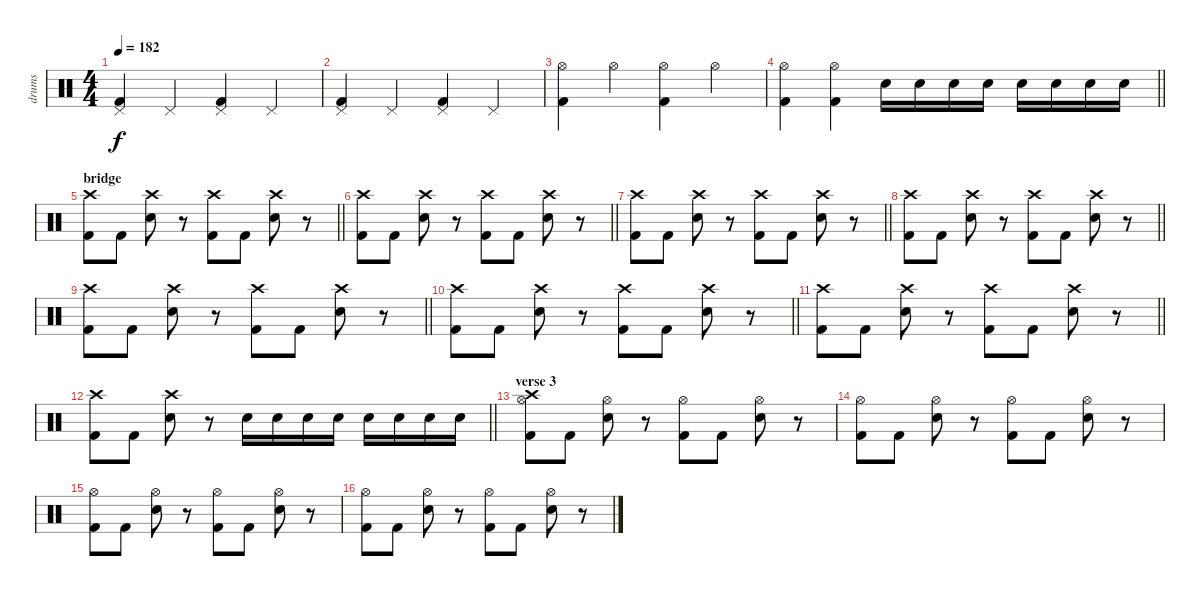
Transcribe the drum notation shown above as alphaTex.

\track ("drums" "drums") {instrument percussion}
\staff {score}
\articulation defaults
\ts (4 4)
\tempo 182
\clef neutral
\ks c
("Kick (hit) 2" "Pedal Hi-Hat (hit)").4{dy f} "Pedal Hi-Hat (hit)".4 ("Kick (hit) 2" "Pedal Hi-Hat (hit)").4 "Pedal Hi-Hat (hit)".4 |
("Kick (hit) 2" "Pedal Hi-Hat (hit)").4 "Pedal Hi-Hat (hit)".4 ("Kick (hit) 2" "Pedal Hi-Hat (hit)").4 "Pedal Hi-Hat (hit)".4 |
("Kick (hit) 2" "Hi-Hat (open)").4 "Hi-Hat (open)".4 ("Kick (hit) 2" "Hi-Hat (open)").4 "Hi-Hat (open)".4 |
\barLineRight lightlight
("Kick (hit) 2" "Hi-Hat (open)").4 ("Kick (hit) 2" "Hi-Hat (open)").4 "Electric Snare (hit)".16 "Electric Snare (hit)".16 "Electric Snare (hit)".16 "Electric Snare (hit)".16 "Electric Snare (hit)".16 "Electric Snare (hit)".16 "Electric Snare (hit)".16 "Electric Snare (hit)".16 |
\section ("" "bridge")
\barLineRight lightlight
("Kick (hit) 2" "Crash high (hit)").8 "Kick (hit) 2".8 ("Electric Snare (hit)" "Crash high (hit)").8 r.8 ("Kick (hit) 2" "Crash high (hit)").8 "Kick (hit) 2".8 ("Electric Snare (hit)" "Crash high (hit)").8 r.8 |
\barLineRight lightlight
("Kick (hit) 2" "Crash high (hit)").8 "Kick (hit) 2".8 ("Electric Snare (hit)" "Crash high (hit)").8 r.8 ("Kick (hit) 2" "Crash high (hit)").8 "Kick (hit) 2".8 ("Electric Snare (hit)" "Crash high (hit)").8 r.8 |
\barLineRight lightlight
("Kick (hit) 2" "Crash high (hit)").8 "Kick (hit) 2".8 ("Electric Snare (hit)" "Crash high (hit)").8 r.8 ("Kick (hit) 2" "Crash high (hit)").8 "Kick (hit) 2".8 ("Electric Snare (hit)" "Crash high (hit)").8 r.8 |
\barLineRight lightlight
("Kick (hit) 2" "Crash high (hit)").8 "Kick (hit) 2".8 ("Electric Snare (hit)" "Crash high (hit)").8 r.8 ("Kick (hit) 2" "Crash high (hit)").8 "Kick (hit) 2".8 ("Electric Snare (hit)" "Crash high (hit)").8 r.8 |
\barLineRight lightlight
("Kick (hit) 2" "Crash high (hit)").8 "Kick (hit) 2".8 ("Electric Snare (hit)" "Crash high (hit)").8 r.8 ("Kick (hit) 2" "Crash high (hit)").8 "Kick (hit) 2".8 ("Electric Snare (hit)" "Crash high (hit)").8 r.8 |
\barLineRight lightlight
("Kick (hit) 2" "Crash high (hit)").8 "Kick (hit) 2".8 ("Electric Snare (hit)" "Crash high (hit)").8 r.8 ("Kick (hit) 2" "Crash high (hit)").8 "Kick (hit) 2".8 ("Electric Snare (hit)" "Crash high (hit)").8 r.8 |
\barLineRight lightlight
("Kick (hit) 2" "Crash high (hit)").8 "Kick (hit) 2".8 ("Electric Snare (hit)" "Crash high (hit)").8 r.8 ("Kick (hit) 2" "Crash high (hit)").8 "Kick (hit) 2".8 ("Electric Snare (hit)" "Crash high (hit)").8 r.8 |
\barLineRight lightlight
("Kick (hit) 2" "Crash high (hit)").8 "Kick (hit) 2".8 ("Electric Snare (hit)" "Crash high (hit)").8 r.8 "Electric Snare (hit)".16 "Electric Snare (hit)".16 "Electric Snare (hit)".16 "Electric Snare (hit)".16 "Electric Snare (hit)".16 "Electric Snare (hit)".16 "Electric Snare (hit)".16 "Electric Snare (hit)".16 |
\section ("" "verse 3")
("Kick (hit) 2" "Hi-Hat (open)" "Crash high (hit)").8 "Kick (hit) 2".8 ("Electric Snare (hit)" "Hi-Hat (open)").8 r.8 ("Kick (hit) 2" "Hi-Hat (open)").8 "Kick (hit) 2".8 ("Electric Snare (hit)" "Hi-Hat (open)").8 r.8 |
("Kick (hit) 2" "Hi-Hat (open)").8 "Kick (hit) 2".8 ("Electric Snare (hit)" "Hi-Hat (open)").8 r.8 ("Kick (hit) 2" "Hi-Hat (open)").8 "Kick (hit) 2".8 ("Electric Snare (hit)" "Hi-Hat (open)").8 r.8 |
("Kick (hit) 2" "Hi-Hat (open)").8 "Kick (hit) 2".8 ("Electric Snare (hit)" "Hi-Hat (open)").8 r.8 ("Kick (hit) 2" "Hi-Hat (open)").8 "Kick (hit) 2".8 ("Electric Snare (hit)" "Hi-Hat (open)").8 r.8 |
("Kick (hit) 2" "Hi-Hat (open)").8 "Kick (hit) 2".8 ("Electric Snare (hit)" "Hi-Hat (open)").8 r.8 ("Kick (hit) 2" "Hi-Hat (open)").8 "Kick (hit) 2".8 ("Electric Snare (hit)" "Hi-Hat (open)").8 r.8
